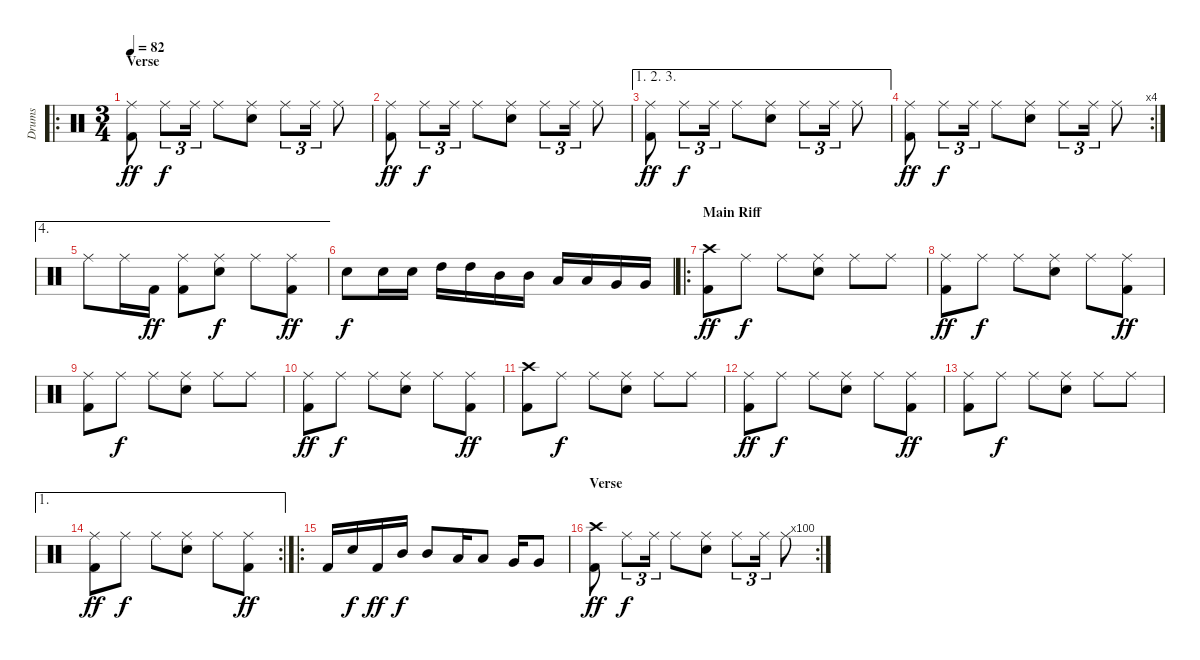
\track ("Drums" "Drums") {instrument percussion}
\staff {score}
\articulation defaults
\ro
\ts (3 4)
\section ("" "Verse")
\tempo 82
\clef neutral
\ks c
("Ride (middle)" "Kick (hit) 2").8{dy ff} "Ride (middle)".8{tu (3 2) dy f} "Ride (middle)".16{tu (3 2)} "Ride (middle)".8 ("Ride (middle)" "Electric Snare (hit)").8 "Ride (middle)".8{tu (3 2)} "Ride (middle)".16{tu (3 2)} "Ride (middle)".8 |
("Ride (middle)" "Kick (hit) 2").8{dy ff} "Ride (middle)".8{tu (3 2) dy f} "Ride (middle)".16{tu (3 2)} "Ride (middle)".8 ("Ride (middle)" "Electric Snare (hit)").8 "Ride (middle)".8{tu (3 2)} "Ride (middle)".16{tu (3 2)} "Ride (middle)".8 |
\ae (1 2 3)
("Ride (middle)" "Kick (hit) 2").8{dy ff} "Ride (middle)".8{tu (3 2) dy f} "Ride (middle)".16{tu (3 2)} "Ride (middle)".8 ("Ride (middle)" "Electric Snare (hit)").8 "Ride (middle)".8{tu (3 2)} "Ride (middle)".16{tu (3 2)} "Ride (middle)".8 |
\rc 4
("Ride (middle)" "Kick (hit) 2").8{dy ff} "Ride (middle)".8{tu (3 2) dy f} "Ride (middle)".16{tu (3 2)} "Ride (middle)".8 ("Ride (middle)" "Electric Snare (hit)").8 "Ride (middle)".8{tu (3 2)} "Ride (middle)".16{tu (3 2)} "Ride (middle)".8 |
\ae 4 "Ride (middle)".8 "Ride (middle)".16 "Kick (hit) 2".16{dy ff}
("Ride (middle)" "Kick (hit) 2").8 ("Ride (middle)" "Electric Snare (hit)").8{dy f} "Ride (middle)".8 ("Ride (middle)" "Kick (hit) 2").8{dy ff} |
"Electric Snare (hit)".8{dy f} "Electric Snare (hit)".16 "Electric Snare (hit)".16 "High Tom (hit)".16 "High Tom (hit)".16 "Mid Tom (hit)".16 "Mid Tom (hit)".16 "Low Tom (hit)".16 "Low Tom (hit)".16 "Very Low Tom (hit)".16 "Very Low Tom (hit)".16 |
\ro
\section ("" "Main Riff")
("Crash high (hit)" "Kick (hit) 2").8{dy ff} "Ride (middle)".8{dy f} "Ride (middle)".8 ("Ride (middle)" "Electric Snare (hit)").8 "Ride (middle)".8 "Ride (middle)".8 |
("Ride (middle)" "Kick (hit) 2").8{dy ff} "Ride (middle)".8{dy f} "Ride (middle)".8 ("Ride (middle)" "Electric Snare (hit)").8 "Ride (middle)".8 ("Ride (middle)" "Kick (hit) 2").8{dy ff} |
("Ride (middle)" "Kick (hit) 2").8 "Ride (middle)".8{dy f} "Ride (middle)".8 ("Ride (middle)" "Electric Snare (hit)").8 "Ride (middle)".8 "Ride (middle)".8 |
("Ride (middle)" "Kick (hit) 2").8{dy ff} "Ride (middle)".8{dy f} "Ride (middle)".8 ("Ride (middle)" "Electric Snare (hit)").8 "Ride (middle)".8 ("Ride (middle)" "Kick (hit) 2").8{dy ff} |
("Crash high (hit)" "Kick (hit) 2").8 "Ride (middle)".8{dy f} "Ride (middle)".8 ("Ride (middle)" "Electric Snare (hit)").8 "Ride (middle)".8 "Ride (middle)".8 |
("Ride (middle)" "Kick (hit) 2").8{dy ff} "Ride (middle)".8{dy f} "Ride (middle)".8 ("Ride (middle)" "Electric Snare (hit)").8 "Ride (middle)".8 ("Ride (middle)" "Kick (hit) 2").8{dy ff} |
("Ride (middle)" "Kick (hit) 2").8 "Ride (middle)".8{dy f} "Ride (middle)".8 ("Ride (middle)" "Electric Snare (hit)").8 "Ride (middle)".8 "Ride (middle)".8 |
\ae 1
\rc 2
("Ride (middle)" "Kick (hit) 2").8{dy ff} "Ride (middle)".8{dy f} "Ride (middle)".8 ("Ride (middle)" "Electric Snare (hit)").8 "Ride (middle)".8 ("Ride (middle)" "Kick (hit) 2").8{dy ff} |
\ro "Kick (hit) 2".16 "Electric Snare (hit)".16{dy f} "Kick (hit) 2".16{dy ff} "Mid Tom (hit)".16{dy f} "Mid Tom (hit)".8 "Low Tom (hit)".16 "Low Tom (hit)".8 "Very Low Tom (hit)".16 "Very Low Tom (hit)".8
|
\rc 100
\section ("" "Verse")
("Crash high (hit)" "Kick (hit) 2").8{dy ff} "Ride (middle)".8{tu (3 2) dy f} "Ride (middle)".16{tu (3 2)} "Ride (middle)".8 ("Ride (middle)" "Electric Snare (hit)").8 "Ride (middle)".8{tu (3 2)} "Ride (middle)".16{tu (3 2)} "Ride (middle)".8
